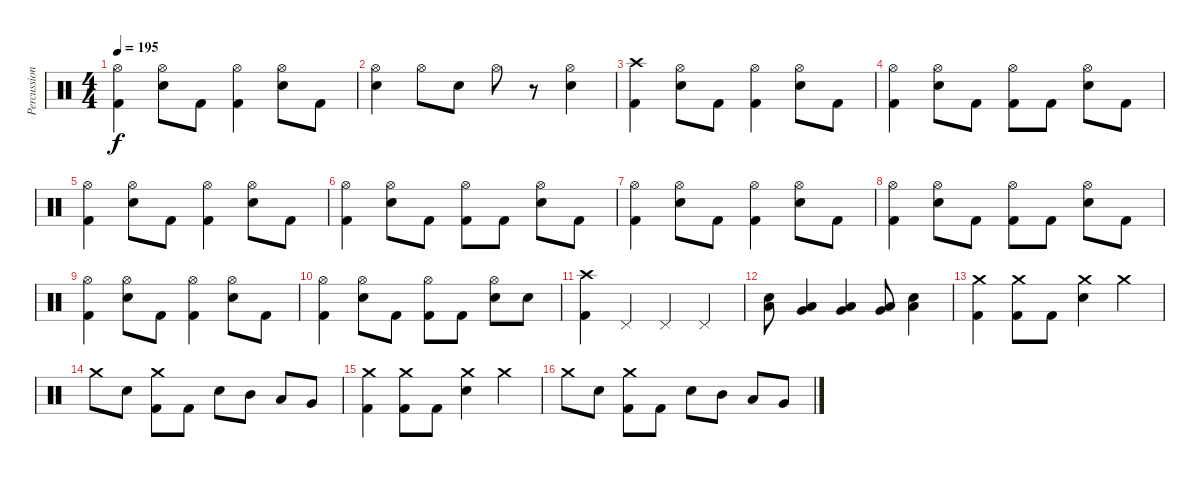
\track ("Percussions" "Percussion") {instrument percussion}
\staff {score}
\articulation defaults
\ts (4 4)
\tempo 195
\clef neutral
\ks c
("Hi-Hat (open)" "Kick (hit) 2").4{dy f} ("Hi-Hat (open)" "Snare (hit) 2").8 "Kick (hit) 2".8 ("Hi-Hat (open)" "Kick (hit) 2").4 ("Hi-Hat (open)" "Snare (hit) 2").8 "Kick (hit) 2".8 |
("Hi-Hat (open)" "Snare (hit) 2").4 "Hi-Hat (open)".8 "Snare (hit) 2".8 "Hi-Hat (open)".8 r.8 ("Hi-Hat (open)" "Snare (hit) 2").4 |
("Crash high (hit)" "Kick (hit) 2").4 ("Hi-Hat (open)" "Snare (hit) 2").8 "Kick (hit) 2".8 ("Hi-Hat (open)" "Kick (hit) 2").4 ("Hi-Hat (open)" "Snare (hit) 2").8 "Kick (hit) 2".8 |
("Hi-Hat (open)" "Kick (hit) 2").4 ("Hi-Hat (open)" "Snare (hit) 2").8 "Kick (hit) 2".8 ("Hi-Hat (open)" "Kick (hit) 2").8 "Kick (hit) 2".8 ("Hi-Hat (open)" "Snare (hit) 2").8 "Kick (hit) 2".8 |
("Hi-Hat (open)" "Kick (hit) 2").4 ("Hi-Hat (open)" "Snare (hit) 2").8 "Kick (hit) 2".8 ("Hi-Hat (open)" "Kick (hit) 2").4 ("Hi-Hat (open)" "Snare (hit) 2").8 "Kick (hit) 2".8 |
("Hi-Hat (open)" "Kick (hit) 2").4 ("Hi-Hat (open)" "Snare (hit) 2").8 "Kick (hit) 2".8 ("Hi-Hat (open)" "Kick (hit) 2").8 "Kick (hit) 2".8 ("Hi-Hat (open)" "Snare (hit) 2").8 "Kick (hit) 2".8 |
("Hi-Hat (open)" "Kick (hit) 2").4 ("Hi-Hat (open)" "Snare (hit) 2").8 "Kick (hit) 2".8 ("Hi-Hat (open)" "Kick (hit) 2").4 ("Hi-Hat (open)" "Snare (hit) 2").8 "Kick (hit) 2".8 |
("Hi-Hat (open)" "Kick (hit) 2").4 ("Hi-Hat (open)" "Snare (hit) 2").8 "Kick (hit) 2".8 ("Hi-Hat (open)" "Kick (hit) 2").8 "Kick (hit) 2".8 ("Hi-Hat (open)" "Snare (hit) 2").8 "Kick (hit) 2".8 |
("Hi-Hat (open)" "Kick (hit) 2").4 ("Hi-Hat (open)" "Snare (hit) 2").8 "Kick (hit) 2".8 ("Hi-Hat (open)" "Kick (hit) 2").4 ("Hi-Hat (open)" "Snare (hit) 2").8 "Kick (hit) 2".8 |
("Hi-Hat (open)" "Kick (hit) 2").4 ("Hi-Hat (open)" "Snare (hit) 2").8 "Kick (hit) 2".8 ("Hi-Hat (open)" "Kick (hit) 2").8 "Kick (hit) 2".8 ("Hi-Hat (open)" "Snare (hit) 2").8 "Snare (hit) 2".8 |
("Crash high (hit)" "Kick (hit) 2").4 "Pedal Hi-Hat (hit)".4 "Pedal Hi-Hat (hit)".4 "Pedal Hi-Hat (hit)".4 |
("Snare (hit) 2" "Low Tom (hit)").8 ("Very Low Tom (hit)" "Low Tom (hit)").4 ("Very Low Tom (hit)" "Low Tom (hit)").4 ("Very Low Tom (hit)" "Low Tom (hit)").8 ("Snare (hit) 2" "Low Tom (hit)").4 |
("Crash medium (hit)" "Kick (hit) 2").4 ("Crash medium (hit)" "Kick (hit) 2").8 "Kick (hit) 2".8 ("Crash medium (hit)" "Snare (hit) 2").4 "Crash medium (hit)".4 |
"Crash medium (hit)".8 "Snare (hit) 2".8 ("Crash medium (hit)" "Kick (hit) 2").8 "Kick (hit) 2".8 "Snare (hit) 2".8 "Mid Tom (hit)".8 "Low Tom (hit)".8 "Very Low Tom (hit)".8 |
("Crash medium (hit)" "Kick (hit) 2").4 ("Crash medium (hit)" "Kick (hit) 2").8 "Kick (hit) 2".8 ("Crash medium (hit)" "Snare (hit) 2").4 "Crash medium (hit)".4 |
"Crash medium (hit)".8 "Snare (hit) 2".8 ("Crash medium (hit)" "Kick (hit) 2").8 "Kick (hit) 2".8 "Snare (hit) 2".8 "Mid Tom (hit)".8 "Low Tom (hit)".8 "Very Low Tom (hit)".8
